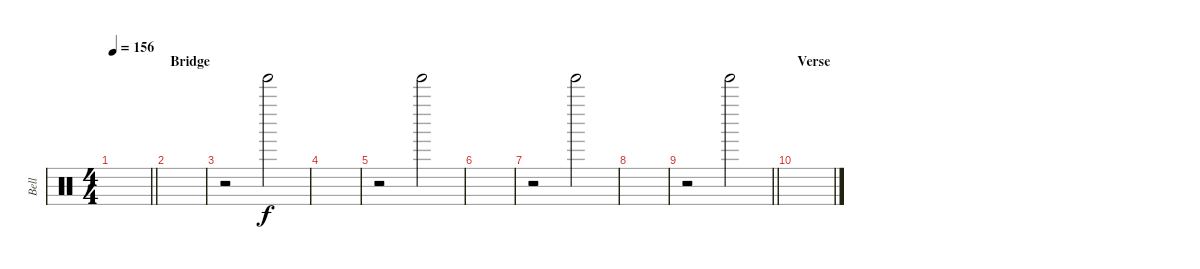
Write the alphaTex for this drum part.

\track ("Bell" "Bell") {instrument percussion}
\staff {score}
\articulation defaults
\ts (4 4)
\tempo 156
\clef neutral
\barLineRight lightlight
\ks c
|
\section ("" "Bridge")
|
r.2 "Tinkle Bell (hit)".2 |
|
r.2 "Tinkle Bell (hit)".2 |
|
r.2 "Tinkle Bell (hit)".2 |
|
\barLineRight lightlight
r.2 "Tinkle Bell (hit)".2 |
\section ("" "Verse")
